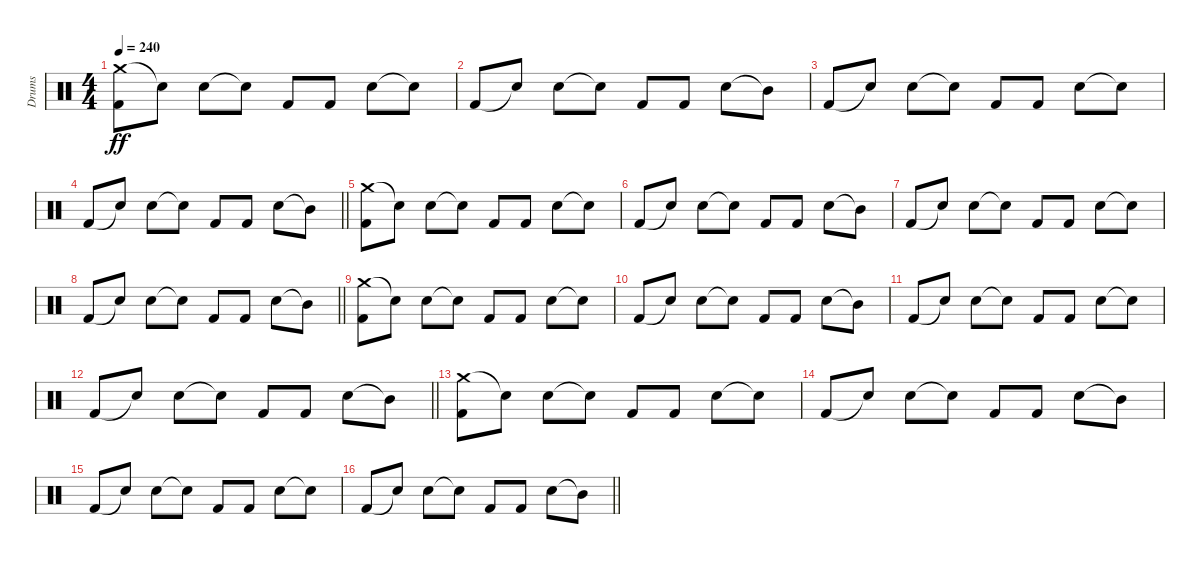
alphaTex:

\track ("Drums" "Drums") {instrument percussion}
\staff {score}
\articulation defaults
\ts (4 4)
\tempo 240
\clef neutral
\ks c
("Crash medium (hit)" "Kick (hit) 2").8{dy ff} "Snare (hit)"{t}.8 "Electric Snare (hit)".8 "Snare (hit)"{t}.8 "Kick (hit) 2".8 "Kick (hit) 2".8 "Electric Snare (hit)".8 "Snare (hit)"{t}.8 |
"Kick (hit) 2".8 "Snare (hit)"{t}.8 "Electric Snare (hit)".8 "Snare (hit)"{t}.8 "Kick (hit) 2".8 "Kick (hit) 2".8 "Electric Snare (hit)".8 "Mid Tom (hit)"{t}.8 |
"Kick (hit) 2".8 "Snare (hit)"{t}.8 "Electric Snare (hit)".8 "Snare (hit)"{t}.8 "Kick (hit) 2".8 "Kick (hit) 2".8 "Electric Snare (hit)".8 "Snare (hit)"{t}.8 |
\barLineRight lightlight "Kick (hit) 2".8 "Snare (hit)"{t}.8 "Electric Snare (hit)".8 "Snare (hit)"{t}.8 "Kick (hit) 2".8 "Kick (hit) 2".8 "Electric Snare (hit)".8 "Mid Tom (hit)"{t}.8
|
("Crash medium (hit)" "Kick (hit) 2").8 "Snare (hit)"{t}.8 "Electric Snare (hit)".8 "Snare (hit)"{t}.8 "Kick (hit) 2".8 "Kick (hit) 2".8 "Electric Snare (hit)".8 "Snare (hit)"{t}.8 |
"Kick (hit) 2".8 "Snare (hit)"{t}.8 "Electric Snare (hit)".8 "Snare (hit)"{t}.8 "Kick (hit) 2".8 "Kick (hit) 2".8 "Electric Snare (hit)".8 "Mid Tom (hit)"{t}.8 |
"Kick (hit) 2".8 "Snare (hit)"{t}.8 "Electric Snare (hit)".8 "Snare (hit)"{t}.8 "Kick (hit) 2".8 "Kick (hit) 2".8 "Electric Snare (hit)".8 "Snare (hit)"{t}.8 |
\barLineRight lightlight "Kick (hit) 2".8 "Snare (hit)"{t}.8 "Electric Snare (hit)".8 "Snare (hit)"{t}.8 "Kick (hit) 2".8 "Kick (hit) 2".8 "Electric Snare (hit)".8 "Mid Tom (hit)"{t}.8
|
("Crash medium (hit)" "Kick (hit) 2").8 "Snare (hit)"{t}.8 "Electric Snare (hit)".8 "Snare (hit)"{t}.8 "Kick (hit) 2".8 "Kick (hit) 2".8 "Electric Snare (hit)".8 "Snare (hit)"{t}.8 |
"Kick (hit) 2".8 "Snare (hit)"{t}.8 "Electric Snare (hit)".8 "Snare (hit)"{t}.8 "Kick (hit) 2".8 "Kick (hit) 2".8 "Electric Snare (hit)".8 "Mid Tom (hit)"{t}.8 |
"Kick (hit) 2".8 "Snare (hit)"{t}.8 "Electric Snare (hit)".8 "Snare (hit)"{t}.8 "Kick (hit) 2".8 "Kick (hit) 2".8 "Electric Snare (hit)".8 "Snare (hit)"{t}.8 |
\barLineRight lightlight "Kick (hit) 2".8 "Snare (hit)"{t}.8 "Electric Snare (hit)".8 "Snare (hit)"{t}.8 "Kick (hit) 2".8 "Kick (hit) 2".8 "Electric Snare (hit)".8 "Mid Tom (hit)"{t}.8
|
("Crash medium (hit)" "Kick (hit) 2").8 "Snare (hit)"{t}.8 "Electric Snare (hit)".8 "Snare (hit)"{t}.8 "Kick (hit) 2".8 "Kick (hit) 2".8 "Electric Snare (hit)".8 "Snare (hit)"{t}.8 |
"Kick (hit) 2".8 "Snare (hit)"{t}.8 "Electric Snare (hit)".8 "Snare (hit)"{t}.8 "Kick (hit) 2".8 "Kick (hit) 2".8 "Electric Snare (hit)".8 "Mid Tom (hit)"{t}.8 |
"Kick (hit) 2".8 "Snare (hit)"{t}.8 "Electric Snare (hit)".8 "Snare (hit)"{t}.8 "Kick (hit) 2".8 "Kick (hit) 2".8 "Electric Snare (hit)".8 "Snare (hit)"{t}.8 |
\barLineRight lightlight "Kick (hit) 2".8 "Snare (hit)"{t}.8 "Electric Snare (hit)".8 "Snare (hit)"{t}.8 "Kick (hit) 2".8 "Kick (hit) 2".8 "Electric Snare (hit)".8 "Mid Tom (hit)"{t}.8
